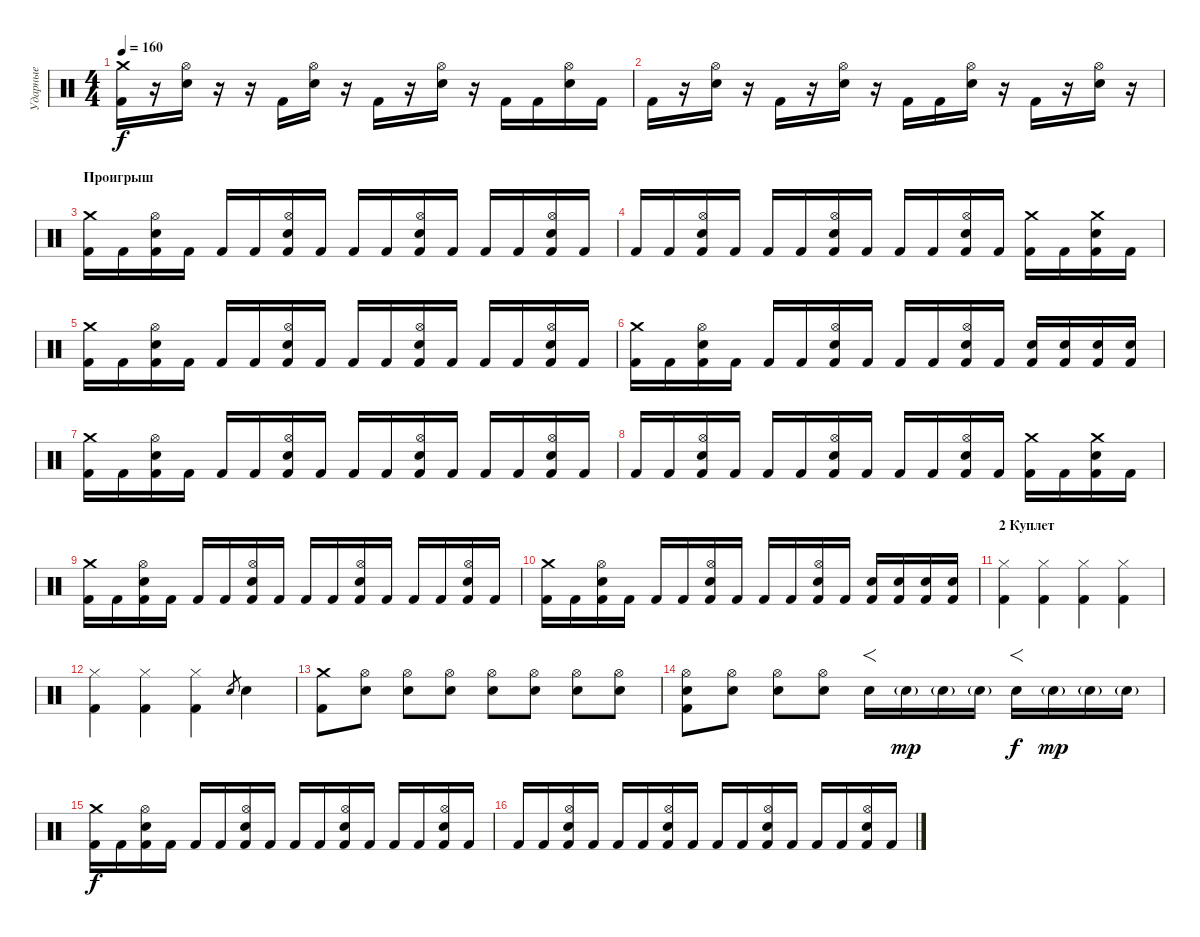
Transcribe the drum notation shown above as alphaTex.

\track ("Ударные" "Ударные") {instrument percussion}
\staff {score}
\articulation defaults
\ts (4 4)
\tempo 160
\clef neutral
\ks c
("Crash medium (hit)" "Kick (hit) 2").16{dy f} r.16 ("Hi-Hat (open)" "Electric Snare (hit)").16 r.16 r.16 "Kick (hit) 2".16 ("Hi-Hat (open)" "Electric Snare (hit)").16 r.16 "Kick (hit) 2".16 r.16 ("Hi-Hat (open)" "Electric Snare (hit)").16 r.16 "Kick (hit) 2".16 "Kick (hit) 2".16 ("Hi-Hat (open)" "Electric Snare (hit)").16 "Kick (hit) 2".16 |
"Kick (hit) 2".16 r.16 ("Hi-Hat (open)" "Electric Snare (hit)").16 r.16 "Kick (hit) 2".16 r.16 ("Hi-Hat (open)" "Electric Snare (hit)").16 r.16 "Kick (hit) 2".16 "Kick (hit) 2".16 ("Hi-Hat (open)" "Electric Snare (hit)").16 r.16 "Kick (hit) 2".16 r.16 ("Hi-Hat (open)" "Electric Snare (hit)").16 r.16 |
\section ("" "Проигрыш")
("Crash medium (hit)" "Kick (hit) 2").16 "Kick (hit) 2".16 ("Hi-Hat (open)" "Electric Snare (hit)" "Kick (hit) 2").16 "Kick (hit) 2".16 "Kick (hit) 2".16 "Kick (hit) 2".16 ("Hi-Hat (open)" "Electric Snare (hit)" "Kick (hit) 2").16 "Kick (hit) 2".16 "Kick (hit) 2".16 "Kick (hit) 2".16 ("Hi-Hat (open)" "Electric Snare (hit)" "Kick (hit) 2").16 "Kick (hit) 2".16 "Kick (hit) 2".16 "Kick (hit) 2".16 ("Hi-Hat (open)" "Electric Snare (hit)" "Kick (hit) 2").16 "Kick (hit) 2".16 |
"Kick (hit) 2".16 "Kick (hit) 2".16 ("Hi-Hat (open)" "Electric Snare (hit)" "Kick (hit) 2").16 "Kick (hit) 2".16 "Kick (hit) 2".16 "Kick (hit) 2".16 ("Hi-Hat (open)" "Electric Snare (hit)" "Kick (hit) 2").16 "Kick (hit) 2".16 "Kick (hit) 2".16 "Kick (hit) 2".16 ("Hi-Hat (open)" "Electric Snare (hit)" "Kick (hit) 2").16 "Kick (hit) 2".16 ("Crash medium (hit)" "Kick (hit) 2").16 "Kick (hit) 2".16 ("Crash medium (hit)" "Electric Snare (hit)" "Kick (hit) 2").16 "Kick (hit) 2".16 |
("Crash medium (hit)" "Kick (hit) 2").16 "Kick (hit) 2".16 ("Hi-Hat (open)" "Electric Snare (hit)" "Kick (hit) 2").16 "Kick (hit) 2".16 "Kick (hit) 2".16 "Kick (hit) 2".16 ("Hi-Hat (open)" "Electric Snare (hit)" "Kick (hit) 2").16 "Kick (hit) 2".16 "Kick (hit) 2".16 "Kick (hit) 2".16 ("Hi-Hat (open)" "Electric Snare (hit)" "Kick (hit) 2").16 "Kick (hit) 2".16 "Kick (hit) 2".16 "Kick (hit) 2".16 ("Hi-Hat (open)" "Electric Snare (hit)" "Kick (hit) 2").16 "Kick (hit) 2".16 |
("Crash medium (hit)" "Kick (hit) 2").16 "Kick (hit) 2".16 ("Hi-Hat (open)" "Electric Snare (hit)" "Kick (hit) 2").16 "Kick (hit) 2".16 "Kick (hit) 2".16 "Kick (hit) 2".16 ("Hi-Hat (open)" "Electric Snare (hit)" "Kick (hit) 2").16 "Kick (hit) 2".16 "Kick (hit) 2".16 "Kick (hit) 2".16 ("Hi-Hat (open)" "Electric Snare (hit)" "Kick (hit) 2").16 "Kick (hit) 2".16 ("Electric Snare (hit)" "Kick (hit) 2").16 ("Electric Snare (hit)" "Kick (hit) 2").16 ("Electric Snare (hit)" "Kick (hit) 2").16 ("Electric Snare (hit)" "Kick (hit) 2").16 |
("Crash medium (hit)" "Kick (hit) 2").16 "Kick (hit) 2".16 ("Hi-Hat (open)" "Electric Snare (hit)" "Kick (hit) 2").16 "Kick (hit) 2".16 "Kick (hit) 2".16 "Kick (hit) 2".16 ("Hi-Hat (open)" "Electric Snare (hit)" "Kick (hit) 2").16 "Kick (hit) 2".16 "Kick (hit) 2".16 "Kick (hit) 2".16 ("Hi-Hat (open)" "Electric Snare (hit)" "Kick (hit) 2").16 "Kick (hit) 2".16 "Kick (hit) 2".16 "Kick (hit) 2".16 ("Hi-Hat (open)" "Electric Snare (hit)" "Kick (hit) 2").16 "Kick (hit) 2".16 |
"Kick (hit) 2".16 "Kick (hit) 2".16 ("Hi-Hat (open)" "Electric Snare (hit)" "Kick (hit) 2").16 "Kick (hit) 2".16 "Kick (hit) 2".16 "Kick (hit) 2".16 ("Hi-Hat (open)" "Electric Snare (hit)" "Kick (hit) 2").16 "Kick (hit) 2".16 "Kick (hit) 2".16 "Kick (hit) 2".16 ("Hi-Hat (open)" "Electric Snare (hit)" "Kick (hit) 2").16 "Kick (hit) 2".16 ("Crash medium (hit)" "Kick (hit) 2").16 "Kick (hit) 2".16 ("Crash medium (hit)" "Electric Snare (hit)" "Kick (hit) 2").16 "Kick (hit) 2".16 |
("Crash medium (hit)" "Kick (hit) 2").16 "Kick (hit) 2".16 ("Hi-Hat (open)" "Electric Snare (hit)" "Kick (hit) 2").16 "Kick (hit) 2".16 "Kick (hit) 2".16 "Kick (hit) 2".16 ("Hi-Hat (open)" "Electric Snare (hit)" "Kick (hit) 2").16 "Kick (hit) 2".16 "Kick (hit) 2".16 "Kick (hit) 2".16 ("Hi-Hat (open)" "Electric Snare (hit)" "Kick (hit) 2").16 "Kick (hit) 2".16 "Kick (hit) 2".16 "Kick (hit) 2".16 ("Hi-Hat (open)" "Electric Snare (hit)" "Kick (hit) 2").16 "Kick (hit) 2".16 |
("Crash medium (hit)" "Kick (hit) 2").16 "Kick (hit) 2".16 ("Hi-Hat (open)" "Electric Snare (hit)" "Kick (hit) 2").16 "Kick (hit) 2".16 "Kick (hit) 2".16 "Kick (hit) 2".16 ("Hi-Hat (open)" "Electric Snare (hit)" "Kick (hit) 2").16 "Kick (hit) 2".16 "Kick (hit) 2".16 "Kick (hit) 2".16 ("Hi-Hat (open)" "Electric Snare (hit)" "Kick (hit) 2").16 "Kick (hit) 2".16 ("Electric Snare (hit)" "Kick (hit) 2").16 ("Electric Snare (hit)" "Kick (hit) 2").16 ("Electric Snare (hit)" "Kick (hit) 2").16 ("Electric Snare (hit)" "Kick (hit) 2").16 |
\section ("" "2 Куплет")
("Hi-Hat (closed)" "Kick (hit) 2").4 ("Hi-Hat (closed)" "Kick (hit) 2").4 ("Hi-Hat (closed)" "Kick (hit) 2").4 ("Hi-Hat (closed)" "Kick (hit) 2").4 |
("Hi-Hat (closed)" "Kick (hit) 2").4 ("Hi-Hat (closed)" "Kick (hit) 2").4 ("Hi-Hat (closed)" "Kick (hit) 2").4 "Electric Snare (hit)".8{gr} "Electric Snare (hit)".4 |
("Crash medium (hit)" "Kick (hit) 2").8 ("Hi-Hat (open)" "Electric Snare (hit)").8 ("Hi-Hat (open)" "Electric Snare (hit)").8 ("Hi-Hat (open)" "Electric Snare (hit)").8 ("Hi-Hat (open)" "Electric Snare (hit)").8 ("Hi-Hat (open)" "Electric Snare (hit)").8 ("Hi-Hat (open)" "Electric Snare (hit)").8 ("Hi-Hat (open)" "Electric Snare (hit)").8 |
("Hi-Hat (open)" "Kick (hit) 2" "Electric Snare (hit)").8 ("Hi-Hat (open)" "Electric Snare (hit)").8 ("Hi-Hat (open)" "Electric Snare (hit)").8 ("Hi-Hat (open)" "Electric Snare (hit)").8 "Electric Snare (hit)".16{f} "Electric Snare (hit)"{g}.16{dy mp} "Electric Snare (hit)"{g}.16 "Electric Snare (hit)"{g}.16 "Electric Snare (hit)".16{f dy f} "Electric Snare (hit)"{g}.16{dy mp} "Electric Snare (hit)"{g}.16 "Electric Snare (hit)"{g}.16 |
("Crash medium (hit)" "Kick (hit) 2").16{dy f} "Kick (hit) 2".16 ("Hi-Hat (open)" "Electric Snare (hit)" "Kick (hit) 2").16 "Kick (hit) 2".16 "Kick (hit) 2".16 "Kick (hit) 2".16 ("Hi-Hat (open)" "Electric Snare (hit)" "Kick (hit) 2").16 "Kick (hit) 2".16 "Kick (hit) 2".16 "Kick (hit) 2".16 ("Hi-Hat (open)" "Electric Snare (hit)" "Kick (hit) 2").16 "Kick (hit) 2".16 "Kick (hit) 2".16 "Kick (hit) 2".16 ("Hi-Hat (open)" "Electric Snare (hit)" "Kick (hit) 2").16 "Kick (hit) 2".16 |
"Kick (hit) 2".16 "Kick (hit) 2".16 ("Hi-Hat (open)" "Electric Snare (hit)" "Kick (hit) 2").16 "Kick (hit) 2".16 "Kick (hit) 2".16 "Kick (hit) 2".16 ("Hi-Hat (open)" "Electric Snare (hit)" "Kick (hit) 2").16 "Kick (hit) 2".16 "Kick (hit) 2".16 "Kick (hit) 2".16 ("Hi-Hat (open)" "Electric Snare (hit)" "Kick (hit) 2").16 "Kick (hit) 2".16 "Kick (hit) 2".16 "Kick (hit) 2".16 ("Hi-Hat (open)" "Electric Snare (hit)" "Kick (hit) 2").16 "Kick (hit) 2".16
